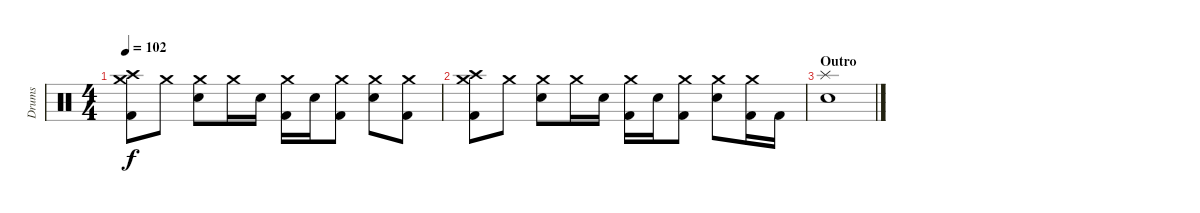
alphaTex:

\track ("Drums" "Drums") {instrument percussion}
\staff {score}
\articulation defaults
\ts (4 4)
\tempo 102
\clef neutral
\ks c
("Crash medium (hit)" "Kick (hit) 2" "Crash high (hit)").8{dy f} "Crash medium (hit)".8 ("Crash medium (hit)" "Electric Snare (hit)").8 "Crash medium (hit)".16 "Electric Snare (hit)".16 ("Crash medium (hit)" "Kick (hit) 2").16 "Electric Snare (hit)".16 ("Crash medium (hit)" "Kick (hit) 2").8 ("Crash medium (hit)" "Electric Snare (hit)").8 ("Crash medium (hit)" "Kick (hit) 2").8 |
("Crash medium (hit)" "Kick (hit) 2" "Crash high (hit)").8 "Crash medium (hit)".8 ("Crash medium (hit)" "Electric Snare (hit)").8 "Crash medium (hit)".16 "Electric Snare (hit)".16 ("Crash medium (hit)" "Kick (hit) 2").16 "Electric Snare (hit)".16 ("Crash medium (hit)" "Kick (hit) 2").8 ("Crash medium (hit)" "Electric Snare (hit)").8 ("Crash medium (hit)" "Kick (hit) 2").16 "Kick (hit) 2".16 |
\section ("" "Outro")
("Splash (hit)" "Electric Snare (hit)").1
